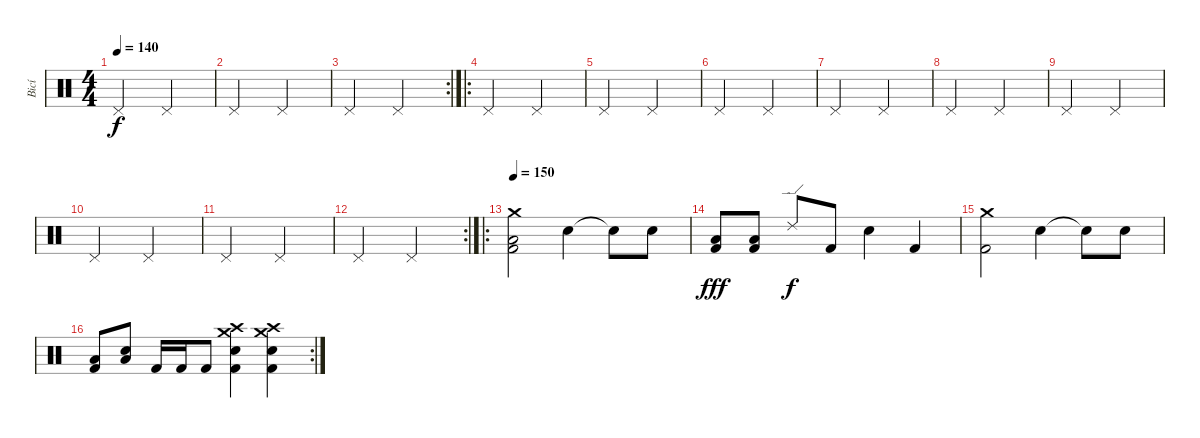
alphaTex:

\track ("Bicí" "Bicí") {instrument percussion}
\staff {score}
\articulation defaults
\ts (4 4)
\tempo 140
\clef neutral
\ks c "Pedal Hi-Hat (hit)".2{dy f} "Pedal Hi-Hat (hit)".2
|
"Pedal Hi-Hat (hit)".2 "Pedal Hi-Hat (hit)".2 |
\rc 2 "Pedal Hi-Hat (hit)".2 "Pedal Hi-Hat (hit)".2
|
\ro "Pedal Hi-Hat (hit)".2 "Pedal Hi-Hat (hit)".2
|
"Pedal Hi-Hat (hit)".2 "Pedal Hi-Hat (hit)".2 |
"Pedal Hi-Hat (hit)".2 "Pedal Hi-Hat (hit)".2 |
"Pedal Hi-Hat (hit)".2 "Pedal Hi-Hat (hit)".2 |
"Pedal Hi-Hat (hit)".2 "Pedal Hi-Hat (hit)".2 |
"Pedal Hi-Hat (hit)".2 "Pedal Hi-Hat (hit)".2 |
"Pedal Hi-Hat (hit)".2 "Pedal Hi-Hat (hit)".2 |
"Pedal Hi-Hat (hit)".2 "Pedal Hi-Hat (hit)".2 |
\rc 2 "Pedal Hi-Hat (hit)".2 "Pedal Hi-Hat (hit)".2
|
\ro
\tempo 150
("Crash medium (hit)" "Kick (hit) 2" "Low Floor Tom (hit)").2 "Electric Snare (hit)".4 "Snare (hit)"{t}.8 "Electric Snare (hit)".8 |
("Kick (hit) 2" "Low Floor Tom (hit)").8{dy fff} ("Kick (hit) 2" "Low Floor Tom (hit)").8 "Ride (edge) 2".8{dy f} "Kick (hit) 2".8 "Electric Snare (hit)".4 "Kick (hit) 2".4 |
("Crash medium (hit)" "Kick (hit) 2").2 "Electric Snare (hit)".4 "Snare (hit)"{t}.8 "Electric Snare (hit)".8 |
\rc 2
("Low Floor Tom (hit)" "Kick (hit) 2").8 ("Low Floor Tom (hit)" "Electric Snare (hit)").8 "Kick (hit) 2".16 "Kick (hit) 2".16 "Kick (hit) 2".8 ("Kick (hit) 2" "Crash high (hit)" "Crash medium (hit)" "Electric Snare (hit)").4 ("Kick (hit) 2" "Crash high (hit)" "Crash medium (hit)" "Electric Snare (hit)").4
